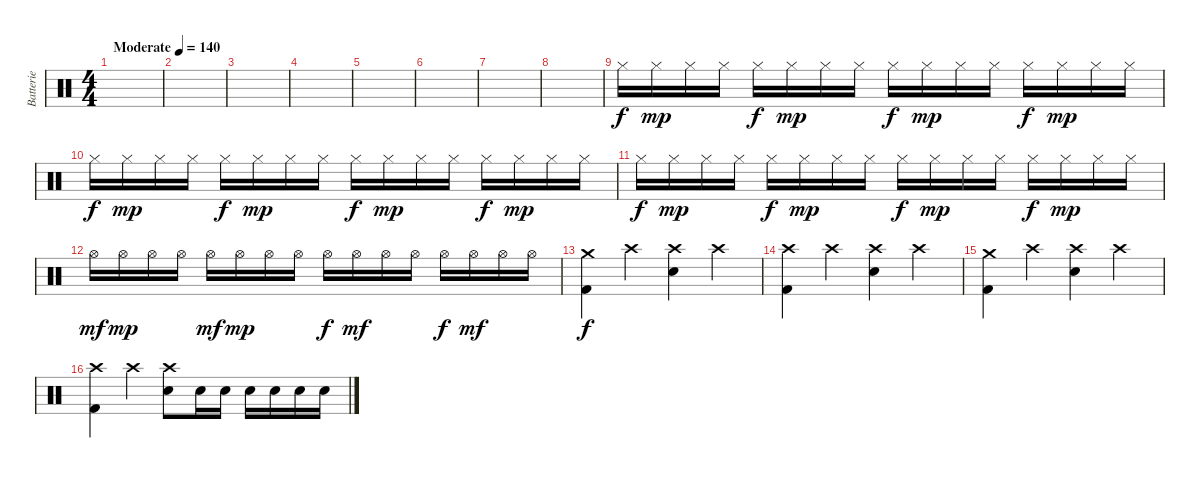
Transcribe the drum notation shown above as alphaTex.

\track ("Batterie" "Batterie") {instrument percussion}
\staff {score}
\articulation defaults
\ts (4 4)
\tempo (140 "Moderate")
\clef neutral
\ks c
|
|
|
|
|
|
|
|
"Hi-Hat (closed)".16 "Hi-Hat (closed)".16{dy mp} "Hi-Hat (closed)".16 "Hi-Hat (closed)".16 "Hi-Hat (closed)".16{dy f} "Hi-Hat (closed)".16{dy mp} "Hi-Hat (closed)".16 "Hi-Hat (closed)".16 "Hi-Hat (closed)".16{dy f} "Hi-Hat (closed)".16{dy mp} "Hi-Hat (closed)".16 "Hi-Hat (closed)".16 "Hi-Hat (closed)".16{dy f} "Hi-Hat (closed)".16{dy mp} "Hi-Hat (closed)".16 "Hi-Hat (closed)".16 |
"Hi-Hat (closed)".16{dy f} "Hi-Hat (closed)".16{dy mp} "Hi-Hat (closed)".16 "Hi-Hat (closed)".16 "Hi-Hat (closed)".16{dy f} "Hi-Hat (closed)".16{dy mp} "Hi-Hat (closed)".16 "Hi-Hat (closed)".16 "Hi-Hat (closed)".16{dy f} "Hi-Hat (closed)".16{dy mp} "Hi-Hat (closed)".16 "Hi-Hat (closed)".16 "Hi-Hat (closed)".16{dy f} "Hi-Hat (closed)".16{dy mp} "Hi-Hat (closed)".16 "Hi-Hat (closed)".16 |
"Hi-Hat (closed)".16{dy f} "Hi-Hat (closed)".16{dy mp} "Hi-Hat (closed)".16 "Hi-Hat (closed)".16 "Hi-Hat (closed)".16{dy f} "Hi-Hat (closed)".16{dy mp} "Hi-Hat (closed)".16 "Hi-Hat (closed)".16 "Hi-Hat (closed)".16{dy f} "Hi-Hat (closed)".16{dy mp} "Hi-Hat (closed)".16 "Hi-Hat (closed)".16 "Hi-Hat (closed)".16{dy f} "Hi-Hat (closed)".16{dy mp} "Hi-Hat (closed)".16 "Hi-Hat (closed)".16 |
"Hi-Hat (open)".16{dy mf} "Hi-Hat (open)".16{dy mp} "Hi-Hat (open)".16 "Hi-Hat (open)".16 "Hi-Hat (open)".16{dy mf} "Hi-Hat (open)".16{dy mp} "Hi-Hat (open)".16 "Hi-Hat (open)".16 "Hi-Hat (open)".16{dy f} "Hi-Hat (open)".16{dy mf} "Hi-Hat (open)".16 "Hi-Hat (open)".16 "Hi-Hat (open)".16{dy f} "Hi-Hat (open)".16{dy mf} "Hi-Hat (open)".16 "Hi-Hat (open)".16 |
("Crash medium (hit)" "Kick (hit) 2").4{dy f} "Crash high (hit)".4 ("Crash high (hit)" "Electric Snare (hit)").4 "Crash high (hit)".4 |
("Crash high (hit)" "Kick (hit) 2").4 "Crash high (hit)".4 ("Crash high (hit)" "Electric Snare (hit)").4 "Crash high (hit)".4 |
("Crash medium (hit)" "Kick (hit) 2").4 "Crash high (hit)".4 ("Crash high (hit)" "Electric Snare (hit)").4 "Crash high (hit)".4 |
("Crash high (hit)" "Kick (hit) 2").4 "Crash high (hit)".4 ("Crash high (hit)" "Electric Snare (hit)").8 "Electric Snare (hit)".16 "Electric Snare (hit)".16 "Electric Snare (hit)".16 "Electric Snare (hit)".16 "Electric Snare (hit)".16 "Electric Snare (hit)".16
